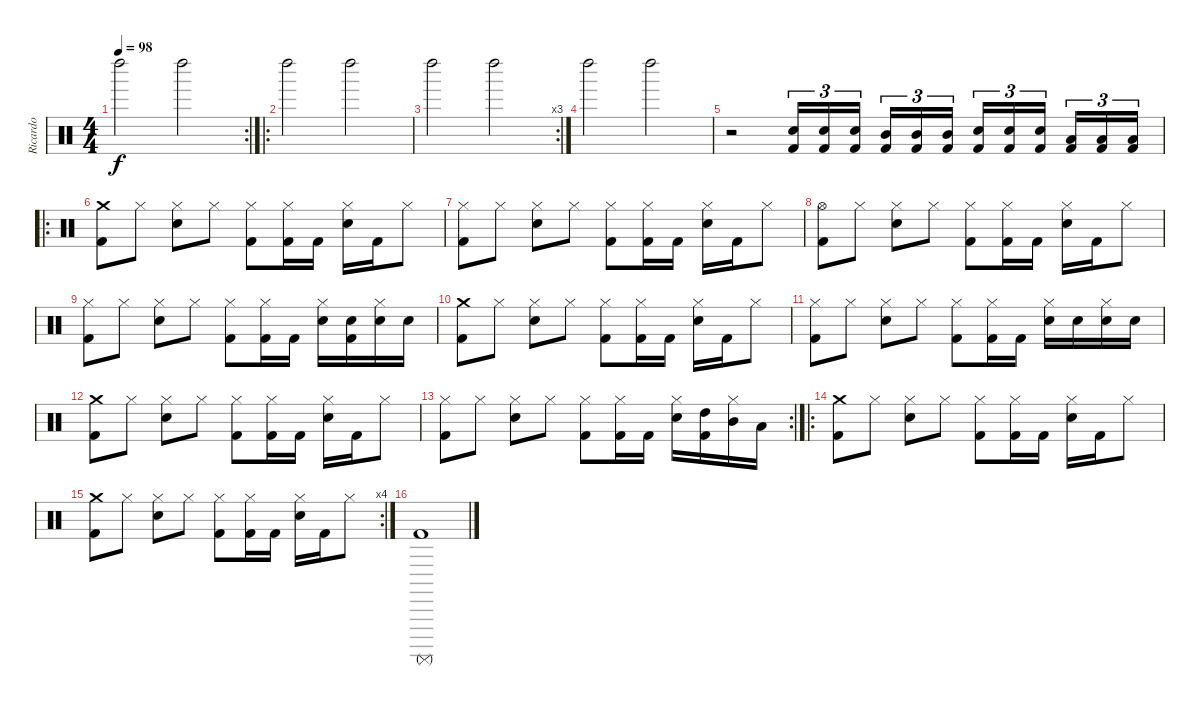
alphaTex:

\track ("Ricardo" "Ricardo") {instrument percussion}
\staff {score}
\articulation defaults
\rc 2
\ts (4 4)
\tempo 98
\clef neutral
\ks c "Left Maraca (hit)".2{dy f} "Left Maraca (hit)".2
|
\ro "Left Maraca (hit)".2 "Left Maraca (hit)".2
|
\rc 3 "Left Maraca (hit)".2 "Left Maraca (hit)".2
|
"Left Maraca (hit)".2 "Left Maraca (hit)".2 |
r.2 ("Kick (hit) 2" "Snare (hit) 2").16{tu (3 2)} ("Kick (hit) 2" "Snare (hit) 2").16{tu (3 2)} ("Kick (hit) 2" "Snare (hit) 2").16{tu (3 2)} ("Kick (hit) 2" "Mid Tom (hit)").16{tu (3 2)} ("Kick (hit) 2" "Mid Tom (hit)").16{tu (3 2)} ("Kick (hit) 2" "Mid Tom (hit)").16{tu (3 2)} ("Kick (hit) 2" "Snare (hit) 2").16{tu (3 2)} ("Kick (hit) 2" "Snare (hit) 2").16{tu (3 2)} ("Kick (hit) 2" "Snare (hit) 2").16{tu (3 2)} ("Kick (hit) 2" "Low Tom (hit)").16{tu (3 2)} ("Kick (hit) 2" "Low Tom (hit)").16{tu (3 2)} ("Kick (hit) 2" "Low Tom (hit)").16{tu (3 2)} |
\ro
("Kick (hit) 2" "Crash medium (hit)").8 "Hi-Hat (closed)".8 ("Hi-Hat (closed)" "Snare (hit) 2").8 "Hi-Hat (closed)".8 ("Kick (hit) 2" "Hi-Hat (closed)").8 ("Kick (hit) 2" "Hi-Hat (closed)").16 "Kick (hit) 2".16 ("Hi-Hat (closed)" "Snare (hit) 2").16 "Kick (hit) 2".16 "Hi-Hat (closed)".8 |
("Kick (hit) 2" "Hi-Hat (closed)").8 "Hi-Hat (closed)".8 ("Hi-Hat (closed)" "Snare (hit) 2").8 "Hi-Hat (closed)".8 ("Kick (hit) 2" "Hi-Hat (closed)").8 ("Kick (hit) 2" "Hi-Hat (closed)").16 "Kick (hit) 2".16 ("Hi-Hat (closed)" "Snare (hit) 2").16 "Kick (hit) 2".16 "Hi-Hat (closed)".8 |
("Kick (hit) 2" "Hi-Hat (open)").8 "Hi-Hat (closed)".8 ("Hi-Hat (closed)" "Snare (hit) 2").8 "Hi-Hat (closed)".8 ("Kick (hit) 2" "Hi-Hat (closed)").8 ("Kick (hit) 2" "Hi-Hat (closed)").16 "Kick (hit) 2".16 ("Hi-Hat (closed)" "Snare (hit) 2").16 "Kick (hit) 2".16 "Hi-Hat (closed)".8 |
("Kick (hit) 2" "Hi-Hat (closed)").8 "Hi-Hat (closed)".8 ("Hi-Hat (closed)" "Snare (hit) 2").8 "Hi-Hat (closed)".8 ("Kick (hit) 2" "Hi-Hat (closed)").8 ("Kick (hit) 2" "Hi-Hat (closed)").16 "Kick (hit) 2".16 ("Hi-Hat (closed)" "Snare (hit) 2").16 ("Kick (hit) 2" "Snare (hit) 2").16 ("Hi-Hat (closed)" "Snare (hit) 2").16 "Snare (hit) 2".16 |
("Kick (hit) 2" "Crash medium (hit)").8 "Hi-Hat (closed)".8 ("Hi-Hat (closed)" "Snare (hit) 2").8 "Hi-Hat (closed)".8 ("Kick (hit) 2" "Hi-Hat (closed)").8 ("Kick (hit) 2" "Hi-Hat (closed)").16 "Kick (hit) 2".16 ("Hi-Hat (closed)" "Snare (hit) 2").16 "Kick (hit) 2".16 "Hi-Hat (closed)".8 |
("Kick (hit) 2" "Hi-Hat (closed)").8 "Hi-Hat (closed)".8 ("Hi-Hat (closed)" "Snare (hit) 2").8 "Hi-Hat (closed)".8 ("Kick (hit) 2" "Hi-Hat (closed)").8 ("Kick (hit) 2" "Hi-Hat (closed)").16 "Kick (hit) 2".16 ("Hi-Hat (closed)" "Snare (hit) 2").16 "Snare (hit) 2".16 ("Snare (hit) 2" "Hi-Hat (closed)").16 "Snare (hit) 2".16 |
("Kick (hit) 2" "Crash medium (hit)").8 "Hi-Hat (closed)".8 ("Hi-Hat (closed)" "Snare (hit) 2").8 "Hi-Hat (closed)".8 ("Kick (hit) 2" "Hi-Hat (closed)").8 ("Kick (hit) 2" "Hi-Hat (closed)").16 "Kick (hit) 2".16 ("Hi-Hat (closed)" "Snare (hit) 2").16 "Kick (hit) 2".16 "Hi-Hat (closed)".8 |
\rc 2
("Kick (hit) 2" "Hi-Hat (closed)").8 "Hi-Hat (closed)".8 ("Hi-Hat (closed)" "Snare (hit) 2").8 "Hi-Hat (closed)".8 ("Kick (hit) 2" "Hi-Hat (closed)").8 ("Kick (hit) 2" "Hi-Hat (closed)").16 "Kick (hit) 2".16 ("Hi-Hat (closed)" "Snare (hit) 2").16 ("Kick (hit) 2" "High Tom (hit)").16 ("Hi-Hat (closed)" "Mid Tom (hit)").16 "Low Tom (hit)".16 |
\ro
("Kick (hit) 2" "Crash medium (hit)").8 "Hi-Hat (closed)".8 ("Hi-Hat (closed)" "Snare (hit) 2").8 "Hi-Hat (closed)".8 ("Kick (hit) 2" "Hi-Hat (closed)").8 ("Kick (hit) 2" "Hi-Hat (closed)").16 "Kick (hit) 2".16 ("Hi-Hat (closed)" "Snare (hit) 2").16 "Kick (hit) 2".16 "Hi-Hat (closed)".8 |
\rc 4
("Kick (hit) 2" "Crash medium (hit)").8 "Hi-Hat (closed)".8 ("Hi-Hat (closed)" "Snare (hit) 2").8 "Hi-Hat (closed)".8 ("Kick (hit) 2" "Hi-Hat (closed)").8 ("Kick (hit) 2" "Hi-Hat (closed)").16 "Kick (hit) 2".16 ("Hi-Hat (closed)" "Snare (hit) 2").16 "Kick (hit) 2".16 "Hi-Hat (closed)".8 |
("Surdo (mute)" "Kick (hit) 2").1
